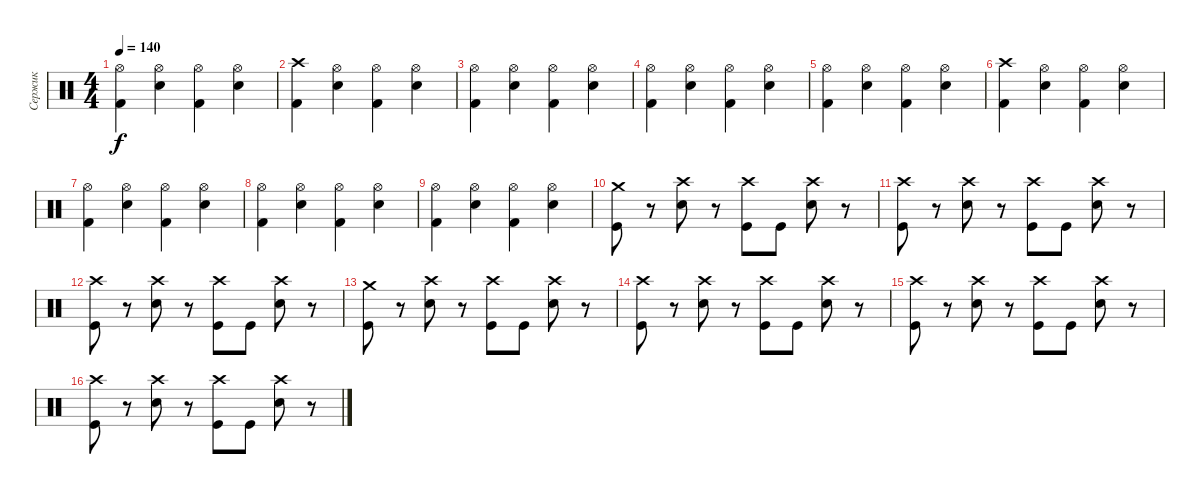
\track ("Сержик" "Сержик") {instrument percussion}
\staff {score}
\articulation defaults
\ts (4 4)
\tempo 140
\clef neutral
\ks c
("Hi-Hat (open)" "Kick (hit) 2").4{dy f} ("Hi-Hat (open)" "Electric Snare (hit)").4 ("Hi-Hat (open)" "Kick (hit) 2").4 ("Hi-Hat (open)" "Electric Snare (hit)").4 |
("Crash high (hit)" "Kick (hit) 2").4 ("Hi-Hat (open)" "Electric Snare (hit)").4 ("Hi-Hat (open)" "Kick (hit) 2").4 ("Hi-Hat (open)" "Electric Snare (hit)").4 |
("Hi-Hat (open)" "Kick (hit) 2").4 ("Hi-Hat (open)" "Electric Snare (hit)").4 ("Hi-Hat (open)" "Kick (hit) 2").4 ("Hi-Hat (open)" "Electric Snare (hit)").4 |
("Hi-Hat (open)" "Kick (hit) 2").4 ("Hi-Hat (open)" "Electric Snare (hit)").4 ("Hi-Hat (open)" "Kick (hit) 2").4 ("Hi-Hat (open)" "Electric Snare (hit)").4 |
("Hi-Hat (open)" "Kick (hit) 2").4 ("Hi-Hat (open)" "Electric Snare (hit)").4 ("Hi-Hat (open)" "Kick (hit) 2").4 ("Hi-Hat (open)" "Electric Snare (hit)").4 |
("Crash high (hit)" "Kick (hit) 2").4 ("Hi-Hat (open)" "Electric Snare (hit)").4 ("Hi-Hat (open)" "Kick (hit) 2").4 ("Hi-Hat (open)" "Electric Snare (hit)").4 |
("Hi-Hat (open)" "Kick (hit) 2").4 ("Hi-Hat (open)" "Electric Snare (hit)").4 ("Hi-Hat (open)" "Kick (hit) 2").4 ("Hi-Hat (open)" "Electric Snare (hit)").4 |
("Hi-Hat (open)" "Kick (hit) 2").4 ("Hi-Hat (open)" "Electric Snare (hit)").4 ("Hi-Hat (open)" "Kick (hit) 2").4 ("Hi-Hat (open)" "Electric Snare (hit)").4 |
("Hi-Hat (open)" "Kick (hit) 2").4 ("Hi-Hat (open)" "Electric Snare (hit)").4 ("Hi-Hat (open)" "Kick (hit) 2").4 ("Hi-Hat (open)" "Electric Snare (hit)").4 |
("Crash medium (hit)" "Kick (hit)").8 r.8 ("Crash high (hit)" "Electric Snare (hit)").8 r.8 ("Crash high (hit)" "Kick (hit)").8 "Kick (hit)".8 ("Crash high (hit)" "Electric Snare (hit)").8 r.8 |
("Crash high (hit)" "Kick (hit)").8 r.8 ("Crash high (hit)" "Electric Snare (hit)").8 r.8 ("Crash high (hit)" "Kick (hit)").8 "Kick (hit)".8 ("Crash high (hit)" "Electric Snare (hit)").8 r.8 |
("Crash high (hit)" "Kick (hit)").8 r.8 ("Crash high (hit)" "Electric Snare (hit)").8 r.8 ("Crash high (hit)" "Kick (hit)").8 "Kick (hit)".8 ("Crash high (hit)" "Electric Snare (hit)").8 r.8 |
("Crash medium (hit)" "Kick (hit)").8 r.8 ("Crash high (hit)" "Electric Snare (hit)").8 r.8 ("Crash high (hit)" "Kick (hit)").8 "Kick (hit)".8 ("Crash high (hit)" "Electric Snare (hit)").8 r.8 |
("Crash high (hit)" "Kick (hit)").8 r.8 ("Crash high (hit)" "Electric Snare (hit)").8 r.8 ("Crash high (hit)" "Kick (hit)").8 "Kick (hit)".8 ("Crash high (hit)" "Electric Snare (hit)").8 r.8 |
("Crash high (hit)" "Kick (hit)").8 r.8 ("Crash high (hit)" "Electric Snare (hit)").8 r.8 ("Crash high (hit)" "Kick (hit)").8 "Kick (hit)".8 ("Crash high (hit)" "Electric Snare (hit)").8 r.8 |
("Crash high (hit)" "Kick (hit)").8 r.8 ("Crash high (hit)" "Electric Snare (hit)").8 r.8 ("Crash high (hit)" "Kick (hit)").8 "Kick (hit)".8 ("Crash high (hit)" "Electric Snare (hit)").8 r.8
